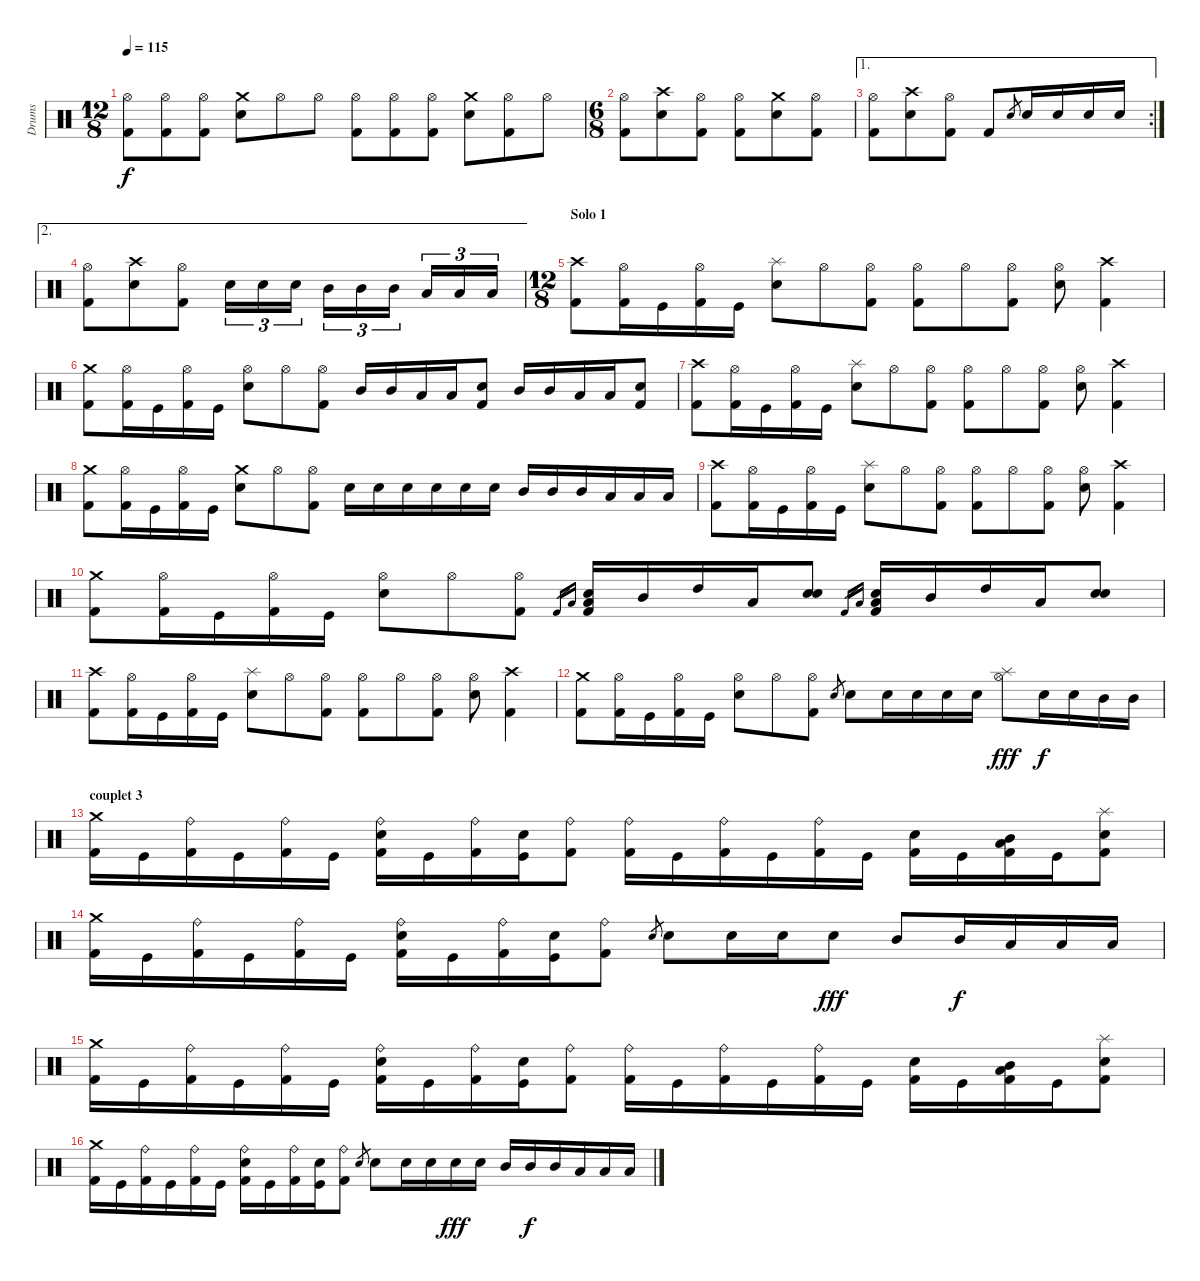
\track ("Drums" "Drums") {instrument percussion}
\staff {score}
\articulation defaults
\ts (12 8)
\tempo 115
\clef neutral
\ks c
("Kick (hit) 2" "Hi-Hat (open)").8{dy f} ("Kick (hit) 2" "Hi-Hat (open)").8 ("Kick (hit) 2" "Hi-Hat (open)").8 ("Electric Snare (hit)" "Crash medium (hit)").8 "Hi-Hat (open)".8 "Hi-Hat (open)".8 ("Kick (hit) 2" "Hi-Hat (open)").8 ("Kick (hit) 2" "Hi-Hat (open)").8 ("Kick (hit) 2" "Hi-Hat (open)").8 ("Electric Snare (hit)" "Crash medium (hit)").8 ("Kick (hit) 2" "Hi-Hat (open)").8 "Hi-Hat (open)".8 |
\ts (6 8)
("Kick (hit) 2" "Hi-Hat (open)").8 ("Electric Snare (hit)" "Crash high (hit)").8 ("Kick (hit) 2" "Hi-Hat (open)").8 ("Kick (hit) 2" "Hi-Hat (open)").8 ("Electric Snare (hit)" "Crash medium (hit)").8 ("Kick (hit) 2" "Hi-Hat (open)").8 |
\ae 1
\rc 2
("Kick (hit) 2" "Hi-Hat (open)").8 ("Electric Snare (hit)" "Crash high (hit)").8 ("Kick (hit) 2" "Hi-Hat (open)").8 "Kick (hit) 2".8 "Electric Snare (hit)".8{gr} "Electric Snare (hit)".16 "Electric Snare (hit)".16 "Electric Snare (hit)".16 "Electric Snare (hit)".16 |
\ae 2
("Kick (hit) 2" "Hi-Hat (open)").8 ("Electric Snare (hit)" "Crash high (hit)").8 ("Kick (hit) 2" "Hi-Hat (open)").8 "Electric Snare (hit)".16{tu (3 2)} "Electric Snare (hit)".16{tu (3 2)} "Electric Snare (hit)".16{tu (3 2)} "Mid Tom (hit)".16{tu (3 2)} "Mid Tom (hit)".16{tu (3 2)} "Mid Tom (hit)".16{tu (3 2)} "Low Tom (hit)".16{tu (3 2)} "Low Tom (hit)".16{tu (3 2)} "Low Tom (hit)".16{tu (3 2)} |
\ts (12 8)
\section ("" "Solo 1")
("Kick (hit) 2" "Crash high (hit)").8 ("Kick (hit) 2" "Hi-Hat (open)").16 "Kick (hit)".16 ("Kick (hit) 2" "Hi-Hat (open)").16 "Kick (hit)".16 ("Electric Snare (hit)" "Splash (hit)").8 "Hi-Hat (open)".8 ("Kick (hit) 2" "Hi-Hat (open)").8 ("Kick (hit) 2" "Hi-Hat (open)").8 "Hi-Hat (open)".8 ("Kick (hit) 2" "Hi-Hat (open)").8 ("Electric Snare (hit)" "Hi-Hat (open)").8 ("Kick (hit) 2" "Crash high (hit)").4 |
("Kick (hit) 2" "Crash medium (hit)").8 ("Kick (hit) 2" "Hi-Hat (open)").16 "Kick (hit)".16 ("Kick (hit) 2" "Hi-Hat (open)").16 "Kick (hit)".16 ("Electric Snare (hit)" "Hi-Hat (open)").8 "Hi-Hat (open)".8 ("Kick (hit) 2" "Hi-Hat (open)").8 "Mid Tom (hit)".16 "Mid Tom (hit)".16 "Low Tom (hit)".16 "Low Tom (hit)".16 ("Kick (hit) 2" "Electric Snare (hit)").8 "Mid Tom (hit)".16 "Mid Tom (hit)".16 "Low Tom (hit)".16 "Low Tom (hit)".16 ("Kick (hit) 2" "Electric Snare (hit)").8 |
("Kick (hit) 2" "Crash high (hit)").8 ("Kick (hit) 2" "Hi-Hat (open)").16 "Kick (hit)".16 ("Kick (hit) 2" "Hi-Hat (open)").16 "Kick (hit)".16 ("Electric Snare (hit)" "Splash (hit)").8 "Hi-Hat (open)".8 ("Kick (hit) 2" "Hi-Hat (open)").8 ("Kick (hit) 2" "Hi-Hat (open)").8 "Hi-Hat (open)".8 ("Kick (hit) 2" "Hi-Hat (open)").8 ("Electric Snare (hit)" "Hi-Hat (open)").8 ("Kick (hit) 2" "Crash high (hit)").4 |
("Kick (hit) 2" "Crash medium (hit)").8 ("Kick (hit) 2" "Hi-Hat (open)").16 "Kick (hit)".16 ("Kick (hit) 2" "Hi-Hat (open)").16 "Kick (hit)".16 ("Electric Snare (hit)" "Crash medium (hit)").8 "Hi-Hat (open)".8 ("Kick (hit) 2" "Hi-Hat (open)").8 "Electric Snare (hit)".16 "Electric Snare (hit)".16 "Electric Snare (hit)".16 "Electric Snare (hit)".16 "Electric Snare (hit)".16 "Electric Snare (hit)".16 "Mid Tom (hit)".16 "Mid Tom (hit)".16 "Mid Tom (hit)".16 "Low Tom (hit)".16 "Low Tom (hit)".16 "Low Tom (hit)".16 |
("Kick (hit) 2" "Crash high (hit)").8 ("Kick (hit) 2" "Hi-Hat (open)").16 "Kick (hit)".16 ("Kick (hit) 2" "Hi-Hat (open)").16 "Kick (hit)".16 ("Electric Snare (hit)" "Splash (hit)").8 "Hi-Hat (open)".8 ("Kick (hit) 2" "Hi-Hat (open)").8 ("Kick (hit) 2" "Hi-Hat (open)").8 "Hi-Hat (open)".8 ("Kick (hit) 2" "Hi-Hat (open)").8 ("Electric Snare (hit)" "Hi-Hat (open)").8 ("Kick (hit) 2" "Crash high (hit)").4 |
("Kick (hit) 2" "Crash medium (hit)").8 ("Kick (hit) 2" "Hi-Hat (open)").16 "Kick (hit)".16 ("Kick (hit) 2" "Hi-Hat (open)").16 "Kick (hit)".16 ("Electric Snare (hit)" "Hi-Hat (open)").8 "Hi-Hat (open)".8 ("Kick (hit) 2" "Hi-Hat (open)").8 "Kick (hit) 2".16{gr} "Low Tom (hit)".16{gr} ("Kick (hit) 2" "Low Tom (hit)" "Electric Snare (hit)").16 "Mid Tom (hit)".16 "High Tom (hit)".16 "Low Tom (hit)".16 ("Electric Snare (hit)" "Snare (hit) 2").8 "Kick (hit) 2".16{gr} "Low Tom (hit)".16{gr} ("Kick (hit) 2" "Low Tom (hit)" "Electric Snare (hit)").16 "Mid Tom (hit)".16 "High Tom (hit)".16 "Low Tom (hit)".16 ("Electric Snare (hit)" "Snare (hit) 2").8 |
("Kick (hit) 2" "Crash high (hit)").8 ("Kick (hit) 2" "Hi-Hat (open)").16 "Kick (hit)".16 ("Kick (hit) 2" "Hi-Hat (open)").16 "Kick (hit)".16 ("Electric Snare (hit)" "Splash (hit)").8 "Hi-Hat (open)".8 ("Kick (hit) 2" "Hi-Hat (open)").8 ("Kick (hit) 2" "Hi-Hat (open)").8 "Hi-Hat (open)".8 ("Kick (hit) 2" "Hi-Hat (open)").8 ("Electric Snare (hit)" "Hi-Hat (open)").8 ("Kick (hit) 2" "Crash high (hit)").4 |
("Kick (hit) 2" "Crash medium (hit)").8 ("Kick (hit) 2" "Hi-Hat (open)").16 "Kick (hit)".16 ("Kick (hit) 2" "Hi-Hat (open)").16 "Kick (hit)".16 ("Electric Snare (hit)" "Hi-Hat (open)").8 "Hi-Hat (open)".8 ("Kick (hit) 2" "Hi-Hat (open)").8 "Electric Snare (hit)".8{gr} "Electric Snare (hit)".8 "Electric Snare (hit)".16 "Electric Snare (hit)".16 "Electric Snare (hit)".16 "Electric Snare (hit)".16 ("Splash (hit)" "Hi-Hat (open)").8{dy fff} "Electric Snare (hit)".16{dy f} "Electric Snare (hit)".16 "Mid Tom (hit)".16 "Mid Tom (hit)".16 |
\section ("" "couplet 3")
("Kick (hit) 2" "Crash medium (hit)").16 "Kick (hit)".16 ("Kick (hit) 2" "Ride (bell)").16 "Kick (hit)".16 ("Kick (hit) 2" "Ride (bell)").16 "Kick (hit)".16 ("Kick (hit) 2" "Electric Snare (hit)" "Ride (bell)").16 "Kick (hit)".16 ("Kick (hit) 2" "Ride (bell)").16 ("Kick (hit)" "Electric Snare (hit)").16 ("Kick (hit) 2" "Ride (bell)").8 ("Kick (hit) 2" "Ride (bell)").16 "Kick (hit)".16 ("Kick (hit) 2" "Ride (bell)").16 "Kick (hit)".16 ("Kick (hit) 2" "Ride (bell)").16 "Kick (hit)".16 ("Kick (hit) 2" "Electric Snare (hit)").16 "Kick (hit)".16 ("Kick (hit) 2" "Low Tom (hit)" "Mid Tom (hit)").16 "Kick (hit)".16 ("Kick (hit) 2" "Electric Snare (hit)" "Splash (hit)").8 |
("Kick (hit) 2" "Crash medium (hit)").16 "Kick (hit)".16 ("Kick (hit) 2" "Ride (bell)").16 "Kick (hit)".16 ("Kick (hit) 2" "Ride (bell)").16 "Kick (hit)".16 ("Kick (hit) 2" "Electric Snare (hit)" "Ride (bell)").16 "Kick (hit)".16 ("Kick (hit) 2" "Ride (bell)").16 ("Kick (hit)" "Electric Snare (hit)").16 ("Kick (hit) 2" "Ride (bell)").8 "Electric Snare (hit)".8{gr} "Electric Snare (hit)".8 "Electric Snare (hit)".16 "Electric Snare (hit)".16 "Electric Snare (hit)".8{dy fff} "Mid Tom (hit)".8 "Mid Tom (hit)".16{dy f} "Low Tom (hit)".16 "Low Tom (hit)".16 "Low Tom (hit)".16 |
("Kick (hit) 2" "Crash medium (hit)").16 "Kick (hit)".16 ("Kick (hit) 2" "Ride (bell)").16 "Kick (hit)".16 ("Kick (hit) 2" "Ride (bell)").16 "Kick (hit)".16 ("Kick (hit) 2" "Electric Snare (hit)" "Ride (bell)").16 "Kick (hit)".16 ("Kick (hit) 2" "Ride (bell)").16 ("Kick (hit)" "Electric Snare (hit)").16 ("Kick (hit) 2" "Ride (bell)").8 ("Kick (hit) 2" "Ride (bell)").16 "Kick (hit)".16 ("Kick (hit) 2" "Ride (bell)").16 "Kick (hit)".16 ("Kick (hit) 2" "Ride (bell)").16 "Kick (hit)".16 ("Kick (hit) 2" "Electric Snare (hit)").16 "Kick (hit)".16 ("Kick (hit) 2" "Low Tom (hit)" "Mid Tom (hit)").16 "Kick (hit)".16 ("Kick (hit) 2" "Electric Snare (hit)" "Splash (hit)").8 |
("Kick (hit) 2" "Crash medium (hit)").16 "Kick (hit)".16 ("Kick (hit) 2" "Ride (bell)").16 "Kick (hit)".16 ("Kick (hit) 2" "Ride (bell)").16 "Kick (hit)".16 ("Kick (hit) 2" "Electric Snare (hit)" "Ride (bell)").16 "Kick (hit)".16 ("Kick (hit) 2" "Ride (bell)").16 ("Kick (hit)" "Electric Snare (hit)").16 ("Kick (hit) 2" "Ride (bell)").8 "Electric Snare (hit)".8{gr} "Electric Snare (hit)".8 "Electric Snare (hit)".16 "Electric Snare (hit)".16 "Electric Snare (hit)".16{dy fff} "Electric Snare (hit)".16 "Mid Tom (hit)".16 "Mid Tom (hit)".16{dy f} "Mid Tom (hit)".16 "Low Tom (hit)".16 "Low Tom (hit)".16 "Low Tom (hit)".16
